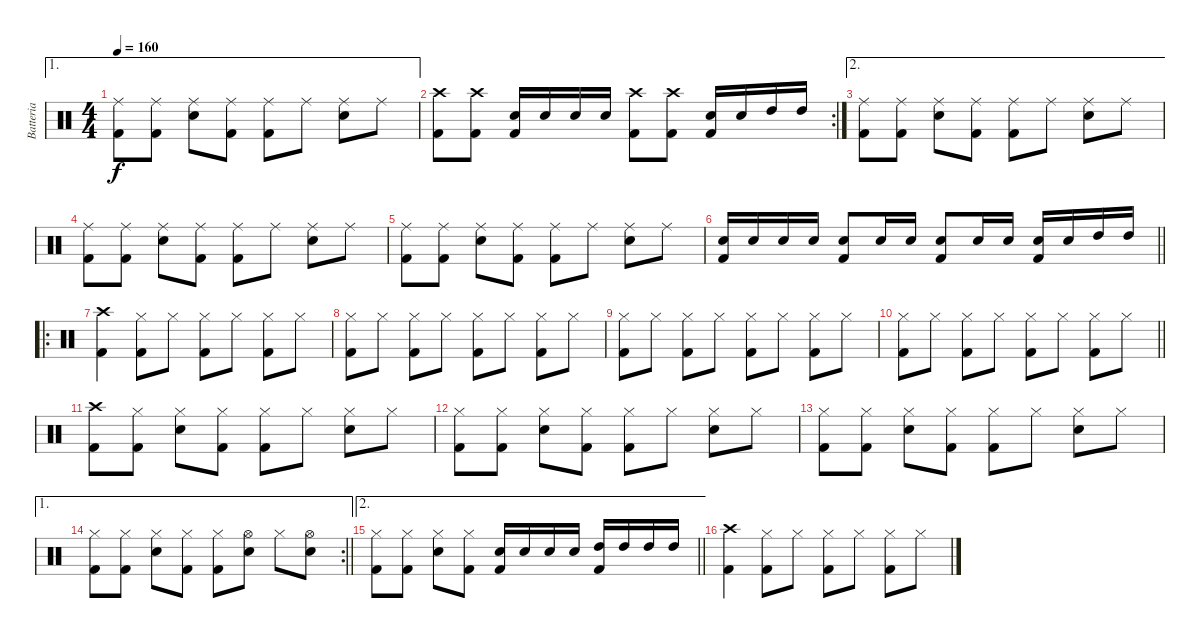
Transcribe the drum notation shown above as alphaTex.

\track ("Batteria" "Batteria") {instrument percussion}
\staff {score}
\articulation defaults
\ae 1
\ts (4 4)
\tempo 160
\clef neutral
\ks c
("Ride (middle)" "Kick (hit) 2").8{dy f} ("Ride (middle)" "Kick (hit) 2").8 ("Ride (middle)" "Electric Snare (hit)").8 ("Ride (middle)" "Kick (hit) 2").8 ("Ride (middle)" "Kick (hit) 2").8 "Ride (middle)".8 ("Ride (middle)" "Electric Snare (hit)").8 "Ride (middle)".8 |
\rc 2
("Crash high (hit)" "Kick (hit) 2").8 ("Crash high (hit)" "Kick (hit) 2").8 ("Electric Snare (hit)" "Kick (hit) 2").16 "Electric Snare (hit)".16 "Electric Snare (hit)".16 "Electric Snare (hit)".16 ("Crash high (hit)" "Kick (hit) 2").8 ("Crash high (hit)" "Kick (hit) 2").8 ("Electric Snare (hit)" "Kick (hit) 2").16 "Electric Snare (hit)".16 "High Tom (hit)".16 "High Tom (hit)".16 |
\ae 2
("Ride (middle)" "Kick (hit) 2").8 ("Ride (middle)" "Kick (hit) 2").8 ("Ride (middle)" "Electric Snare (hit)").8 ("Ride (middle)" "Kick (hit) 2").8 ("Ride (middle)" "Kick (hit) 2").8 "Ride (middle)".8 ("Ride (middle)" "Electric Snare (hit)").8 "Ride (middle)".8 |
("Ride (middle)" "Kick (hit) 2").8 ("Ride (middle)" "Kick (hit) 2").8 ("Ride (middle)" "Electric Snare (hit)").8 ("Ride (middle)" "Kick (hit) 2").8 ("Ride (middle)" "Kick (hit) 2").8 "Ride (middle)".8 ("Ride (middle)" "Electric Snare (hit)").8 "Ride (middle)".8 |
("Ride (middle)" "Kick (hit) 2").8 ("Ride (middle)" "Kick (hit) 2").8 ("Ride (middle)" "Electric Snare (hit)").8 ("Ride (middle)" "Kick (hit) 2").8 ("Ride (middle)" "Kick (hit) 2").8 "Ride (middle)".8 ("Ride (middle)" "Electric Snare (hit)").8 "Ride (middle)".8 |
\barLineRight lightlight
("Electric Snare (hit)" "Kick (hit) 2").16 "Electric Snare (hit)".16 "Electric Snare (hit)".16 "Electric Snare (hit)".16 ("Electric Snare (hit)" "Kick (hit) 2").8 "Electric Snare (hit)".16 "Electric Snare (hit)".16 ("Electric Snare (hit)" "Kick (hit) 2").8 "Electric Snare (hit)".16 "Electric Snare (hit)".16 ("Electric Snare (hit)" "Kick (hit) 2").16 "Electric Snare (hit)".16 "High Tom (hit)".16 "High Tom (hit)".16 |
\ro
("Crash high (hit)" "Kick (hit) 2").4 ("Hi-Hat (closed)" "Kick (hit) 2").8 "Hi-Hat (closed)".8 ("Hi-Hat (closed)" "Kick (hit) 2").8 "Hi-Hat (closed)".8 ("Hi-Hat (closed)" "Kick (hit) 2").8 "Hi-Hat (closed)".8 |
("Hi-Hat (closed)" "Kick (hit) 2").8 "Hi-Hat (closed)".8 ("Hi-Hat (closed)" "Kick (hit) 2").8 "Hi-Hat (closed)".8 ("Hi-Hat (closed)" "Kick (hit) 2").8 "Hi-Hat (closed)".8 ("Hi-Hat (closed)" "Kick (hit) 2").8 "Hi-Hat (closed)".8 |
("Hi-Hat (closed)" "Kick (hit) 2").8 "Hi-Hat (closed)".8 ("Hi-Hat (closed)" "Kick (hit) 2").8 "Hi-Hat (closed)".8 ("Hi-Hat (closed)" "Kick (hit) 2").8 "Hi-Hat (closed)".8 ("Hi-Hat (closed)" "Kick (hit) 2").8 "Hi-Hat (closed)".8 |
\barLineRight lightlight
("Hi-Hat (closed)" "Kick (hit) 2").8 "Hi-Hat (closed)".8 ("Hi-Hat (closed)" "Kick (hit) 2").8 "Hi-Hat (closed)".8 ("Hi-Hat (closed)" "Kick (hit) 2").8 "Hi-Hat (closed)".8 ("Hi-Hat (closed)" "Kick (hit) 2").8 "Hi-Hat (closed)".8 |
("Crash high (hit)" "Kick (hit) 2").8 ("Hi-Hat (closed)" "Kick (hit) 2").8 ("Hi-Hat (closed)" "Electric Snare (hit)").8 ("Hi-Hat (closed)" "Kick (hit) 2").8 ("Hi-Hat (closed)" "Kick (hit) 2").8 "Hi-Hat (closed)".8 ("Hi-Hat (closed)" "Electric Snare (hit)").8 "Hi-Hat (closed)".8 |
("Hi-Hat (closed)" "Kick (hit) 2").8 ("Hi-Hat (closed)" "Kick (hit) 2").8 ("Hi-Hat (closed)" "Electric Snare (hit)").8 ("Hi-Hat (closed)" "Kick (hit) 2").8 ("Hi-Hat (closed)" "Kick (hit) 2").8 "Hi-Hat (closed)".8 ("Hi-Hat (closed)" "Electric Snare (hit)").8 "Hi-Hat (closed)".8 |
("Hi-Hat (closed)" "Kick (hit) 2").8 ("Hi-Hat (closed)" "Kick (hit) 2").8 ("Hi-Hat (closed)" "Electric Snare (hit)").8 ("Hi-Hat (closed)" "Kick (hit) 2").8 ("Hi-Hat (closed)" "Kick (hit) 2").8 "Hi-Hat (closed)".8 ("Hi-Hat (closed)" "Electric Snare (hit)").8 "Hi-Hat (closed)".8 |
\ae 1
\rc 2
\barLineRight lightlight
("Hi-Hat (closed)" "Kick (hit) 2").8 ("Hi-Hat (closed)" "Kick (hit) 2").8 ("Hi-Hat (closed)" "Electric Snare (hit)").8 ("Hi-Hat (closed)" "Kick (hit) 2").8 ("Hi-Hat (closed)" "Kick (hit) 2").8 ("Hi-Hat (open)" "Electric Snare (hit)").8 "Hi-Hat (closed)".8 ("Hi-Hat (open)" "Electric Snare (hit)").8 |
\ae 2
\barLineRight lightlight
("Hi-Hat (closed)" "Kick (hit) 2").8 ("Hi-Hat (closed)" "Kick (hit) 2").8 ("Hi-Hat (closed)" "Electric Snare (hit)").8 ("Hi-Hat (closed)" "Kick (hit) 2").8 ("Electric Snare (hit)" "Kick (hit) 2").16 "Electric Snare (hit)".16 "Electric Snare (hit)".16 "Electric Snare (hit)".16 ("High Tom (hit)" "Kick (hit) 2").16 "High Tom (hit)".16 "High Tom (hit)".16 "High Tom (hit)".16 |
("Crash high (hit)" "Kick (hit) 2").4 ("Hi-Hat (closed)" "Kick (hit) 2").8 "Hi-Hat (closed)".8 ("Hi-Hat (closed)" "Kick (hit) 2").8 "Hi-Hat (closed)".8 ("Hi-Hat (closed)" "Kick (hit) 2").8 "Hi-Hat (closed)".8
